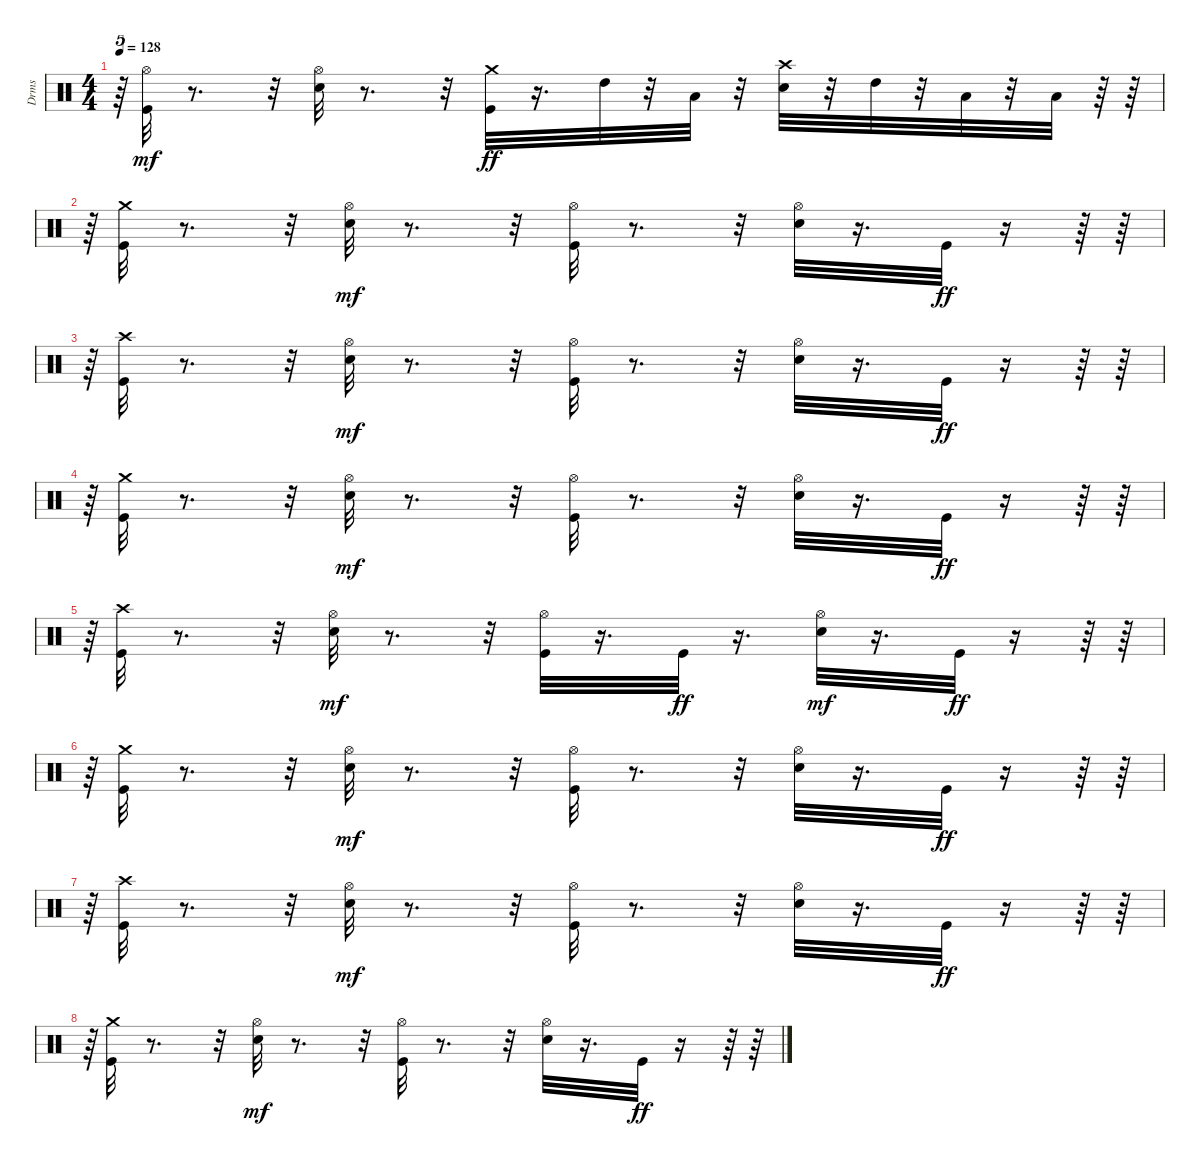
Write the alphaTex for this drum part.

\track ("Drms" "Drms") {instrument percussion}
\staff {score}
\articulation defaults
\ts (4 4)
\tempo 128
\clef neutral
\ks c
r.64{tu (5 4) dy mf} ("Kick (hit)" "Hi-Hat (open)").32 r.8{d} r.32 ("Snare (hit) 2" "Hi-Hat (open)").32 r.8{d} r.32 ("Kick (hit)" "Crash medium (hit)").32{dy ff} r.16{d} "High Tom (hit)".32 r.32 "Low Tom (hit)".32 r.32 ("Snare (hit) 2" "Crash high (hit)").32 r.32 "High Tom (hit)".32 r.32 "Low Tom (hit)".32 r.32 "Low Floor Tom (hit)".32 r.64 r.64 |
r.64{tu (5 4)} ("Kick (hit)" "Crash medium (hit)").32 r.8{d} r.32 ("Snare (hit) 2" "Hi-Hat (open)").32{dy mf} r.8{d} r.32 ("Kick (hit)" "Hi-Hat (open)").32 r.8{d} r.32 ("Snare (hit) 2" "Hi-Hat (open)").32 r.16{d} "Kick (hit)".32{dy ff} r.16 r.64 r.64 |
r.64{tu (5 4)} ("Kick (hit)" "Crash high (hit)").32 r.8{d} r.32 ("Snare (hit) 2" "Hi-Hat (open)").32{dy mf} r.8{d} r.32 ("Kick (hit)" "Hi-Hat (open)").32 r.8{d} r.32 ("Snare (hit) 2" "Hi-Hat (open)").32 r.16{d} "Kick (hit)".32{dy ff} r.16 r.64 r.64 |
r.64{tu (5 4)} ("Kick (hit)" "Crash medium (hit)").32 r.8{d} r.32 ("Snare (hit) 2" "Hi-Hat (open)").32{dy mf} r.8{d} r.32 ("Kick (hit)" "Hi-Hat (open)").32 r.8{d} r.32 ("Snare (hit) 2" "Hi-Hat (open)").32 r.16{d} "Kick (hit)".32{dy ff} r.16 r.64 r.64 |
r.64{tu (5 4)} ("Kick (hit)" "Crash high (hit)").32 r.8{d} r.32 ("Snare (hit) 2" "Hi-Hat (open)").32{dy mf} r.8{d} r.32 ("Kick (hit)" "Hi-Hat (open)").32 r.16{d} "Kick (hit)".32{dy ff} r.16{d} ("Snare (hit) 2" "Hi-Hat (open)").32{dy mf} r.16{d} "Kick (hit)".32{dy ff} r.16 r.64 r.64 |
r.64{tu (5 4)} ("Kick (hit)" "Crash medium (hit)").32 r.8{d} r.32 ("Snare (hit) 2" "Hi-Hat (open)").32{dy mf} r.8{d} r.32 ("Kick (hit)" "Hi-Hat (open)").32 r.8{d} r.32 ("Snare (hit) 2" "Hi-Hat (open)").32 r.16{d} "Kick (hit)".32{dy ff} r.16 r.64 r.64 |
r.64{tu (5 4)} ("Kick (hit)" "Crash high (hit)").32 r.8{d} r.32 ("Snare (hit) 2" "Hi-Hat (open)").32{dy mf} r.8{d} r.32 ("Kick (hit)" "Hi-Hat (open)").32 r.8{d} r.32 ("Snare (hit) 2" "Hi-Hat (open)").32 r.16{d} "Kick (hit)".32{dy ff} r.16 r.64 r.64 |
r.64{tu (5 4)} ("Kick (hit)" "Crash medium (hit)").32 r.8{d} r.32 ("Snare (hit) 2" "Hi-Hat (open)").32{dy mf} r.8{d} r.32 ("Kick (hit)" "Hi-Hat (open)").32 r.8{d} r.32 ("Snare (hit) 2" "Hi-Hat (open)").32 r.16{d} "Kick (hit)".32{dy ff} r.16 r.64 r.64
